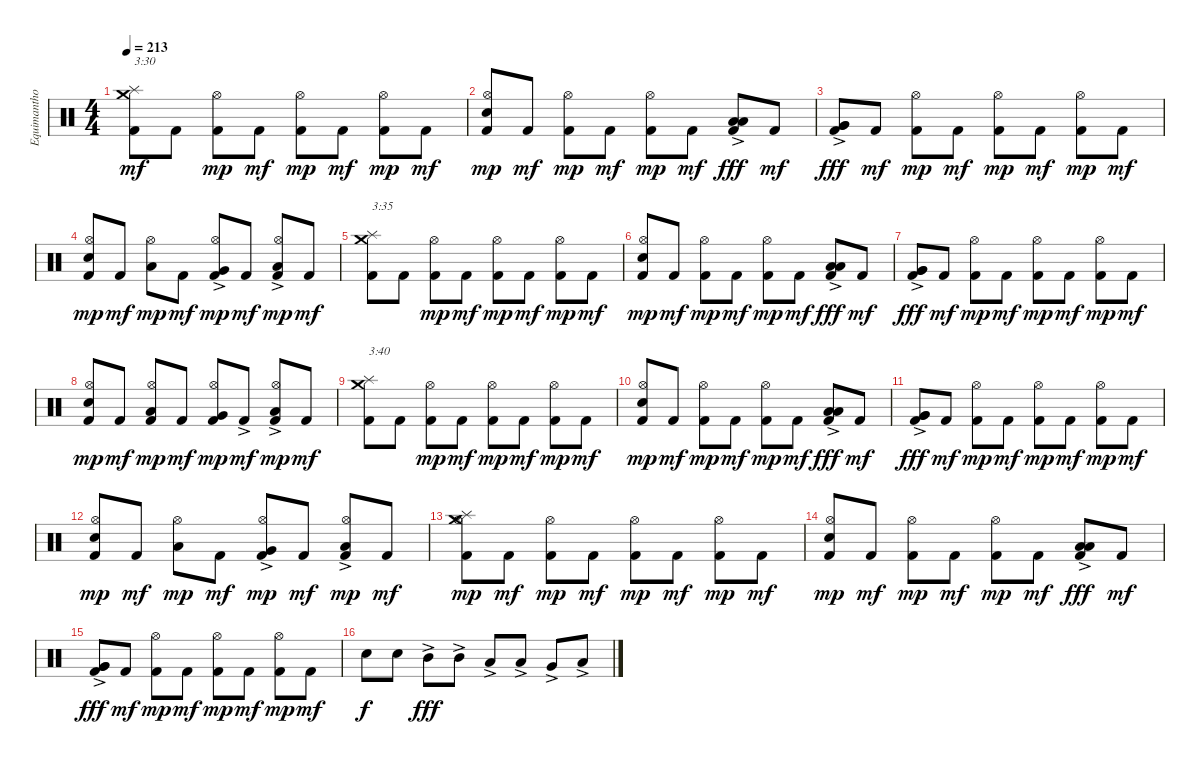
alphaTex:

\track ("Equimanthorn" "Equimantho") {instrument percussion}
\staff {score}
\articulation defaults
\ts (4 4)
\tempo 213
\clef neutral
\ks c
("Kick (hit) 2" "Splash (hit)" "Crash medium (hit)").8{txt "3:30" dy mf} "Kick (hit) 2".8 ("Kick (hit) 2" "Hi-Hat (open)").8{dy mp} "Kick (hit) 2".8{dy mf} ("Kick (hit) 2" "Hi-Hat (open)").8{dy mp} "Kick (hit) 2".8{dy mf} ("Kick (hit) 2" "Hi-Hat (open)").8{dy mp} "Kick (hit) 2".8{dy mf} |
("Kick (hit) 2" "Electric Snare (hit)" "Hi-Hat (open)").8{dy mp} "Kick (hit) 2".8{dy mf} ("Kick (hit) 2" "Hi-Hat (open)").8{dy mp} "Kick (hit) 2".8{dy mf} ("Kick (hit) 2" "Hi-Hat (open)").8{dy mp} "Kick (hit) 2".8{dy mf} ("Kick (hit) 2" "Low Floor Tom (hit)"{ac} "Low Floor Tom (hit)"{ac}).8{dy fff} "Kick (hit) 2".8{dy mf} |
("Kick (hit) 2" "Very Low Tom (hit)"{ac} "Very Low Tom (hit)"{ac}).8{dy fff} "Kick (hit) 2".8{dy mf} ("Kick (hit) 2" "Hi-Hat (open)").8{dy mp} "Kick (hit) 2".8{dy mf} ("Kick (hit) 2" "Hi-Hat (open)").8{dy mp} "Kick (hit) 2".8{dy mf} ("Kick (hit) 2" "Hi-Hat (open)").8{dy mp} "Kick (hit) 2".8{dy mf} |
("Kick (hit) 2" "Electric Snare (hit)" "Hi-Hat (open)").8{dy mp} "Kick (hit) 2".8{dy mf} ("Low Tom (hit)" "Hi-Hat (open)").8{dy mp} "Kick (hit) 2".8{dy mf} ("Kick (hit) 2" "Very Low Tom (hit)"{ac} "Hi-Hat (open)").8{dy mp} "Kick (hit) 2".8{dy mf} ("Kick (hit) 2" "Low Floor Tom (hit)"{ac} "Hi-Hat (open)").8{dy mp} "Kick (hit) 2".8{dy mf} |
("Kick (hit) 2" "Splash (hit)" "Crash medium (hit)").8{txt "3:35"} "Kick (hit) 2".8 ("Kick (hit) 2" "Hi-Hat (open)").8{dy mp} "Kick (hit) 2".8{dy mf} ("Kick (hit) 2" "Hi-Hat (open)").8{dy mp} "Kick (hit) 2".8{dy mf} ("Kick (hit) 2" "Hi-Hat (open)").8{dy mp} "Kick (hit) 2".8{dy mf} |
("Kick (hit) 2" "Electric Snare (hit)" "Hi-Hat (open)").8{dy mp} "Kick (hit) 2".8{dy mf} ("Kick (hit) 2" "Hi-Hat (open)").8{dy mp} "Kick (hit) 2".8{dy mf} ("Kick (hit) 2" "Hi-Hat (open)").8{dy mp} "Kick (hit) 2".8{dy mf} ("Kick (hit) 2" "Low Floor Tom (hit)"{ac} "Low Floor Tom (hit)"{ac}).8{dy fff} "Kick (hit) 2".8{dy mf} |
("Kick (hit) 2" "Very Low Tom (hit)"{ac} "Very Low Tom (hit)"{ac}).8{dy fff} "Kick (hit) 2".8{dy mf} ("Kick (hit) 2" "Hi-Hat (open)").8{dy mp} "Kick (hit) 2".8{dy mf} ("Kick (hit) 2" "Hi-Hat (open)").8{dy mp} "Kick (hit) 2".8{dy mf} ("Kick (hit) 2" "Hi-Hat (open)").8{dy mp} "Kick (hit) 2".8{dy mf} |
("Kick (hit) 2" "Electric Snare (hit)" "Hi-Hat (open)").8{dy mp} "Kick (hit) 2".8{dy mf} ("Kick (hit) 2" "Low Tom (hit)" "Hi-Hat (open)").8{dy mp} "Kick (hit) 2".8{dy mf} ("Kick (hit) 2" "Very Low Tom (hit)" "Hi-Hat (open)").8{dy mp} "Kick (hit) 2"{ac}.8{dy mf} ("Kick (hit) 2" "Low Floor Tom (hit)"{ac} "Hi-Hat (open)").8{dy mp} "Kick (hit) 2".8{dy mf} |
("Kick (hit) 2" "Splash (hit)" "Crash medium (hit)").8{txt "3:40"} "Kick (hit) 2".8 ("Kick (hit) 2" "Hi-Hat (open)").8{dy mp} "Kick (hit) 2".8{dy mf} ("Kick (hit) 2" "Hi-Hat (open)").8{dy mp} "Kick (hit) 2".8{dy mf} ("Kick (hit) 2" "Hi-Hat (open)").8{dy mp} "Kick (hit) 2".8{dy mf} |
("Kick (hit) 2" "Electric Snare (hit)" "Hi-Hat (open)").8{dy mp} "Kick (hit) 2".8{dy mf} ("Kick (hit) 2" "Hi-Hat (open)").8{dy mp} "Kick (hit) 2".8{dy mf} ("Kick (hit) 2" "Hi-Hat (open)").8{dy mp} "Kick (hit) 2".8{dy mf} ("Kick (hit) 2" "Low Floor Tom (hit)"{ac} "Low Floor Tom (hit)"{ac}).8{dy fff} "Kick (hit) 2".8{dy mf} |
("Kick (hit) 2" "Very Low Tom (hit)"{ac} "Very Low Tom (hit)"{ac}).8{dy fff} "Kick (hit) 2".8{dy mf} ("Kick (hit) 2" "Hi-Hat (open)").8{dy mp} "Kick (hit) 2".8{dy mf} ("Kick (hit) 2" "Hi-Hat (open)").8{dy mp} "Kick (hit) 2".8{dy mf} ("Kick (hit) 2" "Hi-Hat (open)").8{dy mp} "Kick (hit) 2".8{dy mf} |
("Kick (hit) 2" "Electric Snare (hit)" "Hi-Hat (open)").8{dy mp} "Kick (hit) 2".8{dy mf} ("Low Tom (hit)" "Hi-Hat (open)").8{dy mp} "Kick (hit) 2".8{dy mf} ("Kick (hit) 2" "Very Low Tom (hit)"{ac} "Hi-Hat (open)").8{dy mp} "Kick (hit) 2".8{dy mf} ("Kick (hit) 2" "Low Floor Tom (hit)"{ac} "Hi-Hat (open)").8{dy mp} "Kick (hit) 2".8{dy mf} |
("Kick (hit) 2" "Hi-Hat (open)" "Splash (hit)" "Crash medium (hit)").8{dy mp} "Kick (hit) 2".8{dy mf} ("Kick (hit) 2" "Hi-Hat (open)").8{dy mp} "Kick (hit) 2".8{dy mf} ("Kick (hit) 2" "Hi-Hat (open)").8{dy mp} "Kick (hit) 2".8{dy mf} ("Kick (hit) 2" "Hi-Hat (open)").8{dy mp} "Kick (hit) 2".8{dy mf} |
("Kick (hit) 2" "Electric Snare (hit)" "Hi-Hat (open)").8{dy mp} "Kick (hit) 2".8{dy mf} ("Kick (hit) 2" "Hi-Hat (open)").8{dy mp} "Kick (hit) 2".8{dy mf} ("Kick (hit) 2" "Hi-Hat (open)").8{dy mp} "Kick (hit) 2".8{dy mf} ("Kick (hit) 2" "Low Floor Tom (hit)"{ac} "Low Floor Tom (hit)"{ac}).8{dy fff} "Kick (hit) 2".8{dy mf} |
("Kick (hit) 2" "Very Low Tom (hit)"{ac} "Very Low Tom (hit)"{ac}).8{dy fff} "Kick (hit) 2".8{dy mf} ("Kick (hit) 2" "Hi-Hat (open)").8{dy mp} "Kick (hit) 2".8{dy mf} ("Kick (hit) 2" "Hi-Hat (open)").8{dy mp} "Kick (hit) 2".8{dy mf} ("Kick (hit) 2" "Hi-Hat (open)").8{dy mp} "Kick (hit) 2".8{dy mf} |
"Electric Snare (hit)".8{dy f} "Electric Snare (hit)".8 "Mid Tom (hit)"{ac}.8{dy fff} "Mid Tom (hit)"{ac}.8 "Low Tom (hit)"{ac}.8 "Low Tom (hit)"{ac}.8 "Very Low Tom (hit)"{ac}.8 "Low Floor Tom (hit)"{ac}.8
